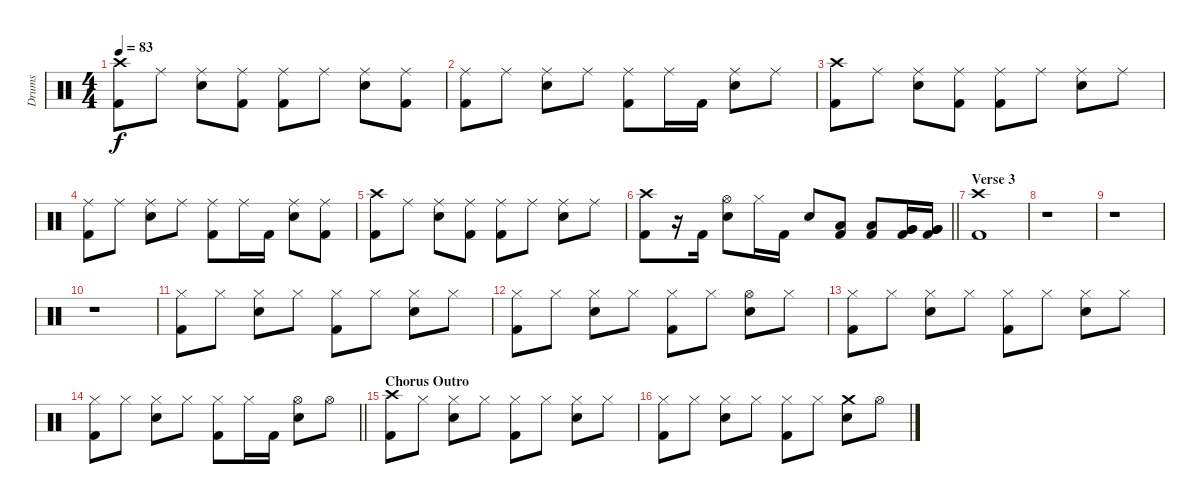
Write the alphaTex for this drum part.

\track ("Drums" "Drums") {instrument percussion}
\staff {score}
\articulation defaults
\ts (4 4)
\tempo 83
\clef neutral
\ks c
("Crash high (hit)" "Kick (hit) 2").8{dy f} "Ride (middle)".8 ("Ride (middle)" "Electric Snare (hit)").8 ("Ride (middle)" "Kick (hit) 2").8 ("Ride (middle)" "Kick (hit) 2").8 "Ride (middle)".8 ("Ride (middle)" "Electric Snare (hit)").8 ("Ride (middle)" "Kick (hit) 2").8 |
("Ride (middle)" "Kick (hit) 2").8 "Ride (middle)".8 ("Ride (middle)" "Electric Snare (hit)").8 "Ride (middle)".8 ("Ride (middle)" "Kick (hit) 2").8 "Ride (middle)".16 "Kick (hit) 2".16 ("Ride (middle)" "Electric Snare (hit)").8 "Ride (middle)".8 |
("Crash high (hit)" "Kick (hit) 2").8 "Ride (middle)".8 ("Ride (middle)" "Electric Snare (hit)").8 ("Ride (middle)" "Kick (hit) 2").8 ("Ride (middle)" "Kick (hit) 2").8 "Ride (middle)".8 ("Ride (middle)" "Electric Snare (hit)").8 "Ride (middle)".8 |
("Ride (middle)" "Kick (hit) 2").8 "Ride (middle)".8 ("Ride (middle)" "Electric Snare (hit)").8 "Ride (middle)".8 ("Ride (middle)" "Kick (hit) 2").8 "Ride (middle)".16 "Kick (hit) 2".16 ("Ride (middle)" "Electric Snare (hit)").8 ("Ride (middle)" "Kick (hit) 2").8 |
("Crash high (hit)" "Kick (hit) 2").8 "Ride (middle)".8 ("Ride (middle)" "Electric Snare (hit)").8 ("Ride (middle)" "Kick (hit) 2").8 ("Ride (middle)" "Kick (hit) 2").8 "Ride (middle)".8 ("Ride (middle)" "Electric Snare (hit)").8 "Ride (middle)".8 |
\barLineRight lightlight
("Crash high (hit)" "Kick (hit) 2").8 r.16 "Kick (hit) 2".16 ("Hi-Hat (open)" "Electric Snare (hit)").8 "Hi-Hat (closed)".16 "Kick (hit) 2".16 "Electric Snare (hit)".8 ("Low Tom (hit)" "Kick (hit) 2").8 ("Low Tom (hit)" "Kick (hit) 2").8 ("Very Low Tom (hit)" "Very Low Tom (hit)" "Kick (hit) 2").16 ("Very Low Tom (hit)" "Very Low Tom (hit)" "Kick (hit) 2").16 |
\section ("" "Verse 3")
("Crash high (hit)" "Kick (hit) 2").1 |
r.1 |
r.1 |
r.1 |
("Hi-Hat (closed)" "Kick (hit) 2").8 "Hi-Hat (closed)".8 ("Hi-Hat (closed)" "Electric Snare (hit)").8 "Hi-Hat (closed)".8 ("Hi-Hat (closed)" "Kick (hit) 2").8 "Hi-Hat (closed)".8 ("Hi-Hat (closed)" "Electric Snare (hit)").8 "Hi-Hat (closed)".8 |
("Hi-Hat (closed)" "Kick (hit) 2").8 "Hi-Hat (closed)".8 ("Hi-Hat (closed)" "Electric Snare (hit)").8 "Hi-Hat (closed)".8 ("Hi-Hat (closed)" "Kick (hit) 2").8 "Hi-Hat (closed)".8 ("Hi-Hat (open)" "Electric Snare (hit)").8 "Hi-Hat (closed)".8 |
("Hi-Hat (closed)" "Kick (hit) 2").8 "Hi-Hat (closed)".8 ("Hi-Hat (closed)" "Electric Snare (hit)").8 "Hi-Hat (closed)".8 ("Hi-Hat (closed)" "Kick (hit) 2").8 "Hi-Hat (closed)".8 ("Hi-Hat (closed)" "Electric Snare (hit)").8 "Hi-Hat (closed)".8 |
\barLineRight lightlight
("Hi-Hat (closed)" "Kick (hit) 2").8 "Hi-Hat (closed)".8 ("Hi-Hat (closed)" "Electric Snare (hit)").8 "Hi-Hat (closed)".8 ("Hi-Hat (closed)" "Kick (hit) 2").8 "Hi-Hat (closed)".16 "Kick (hit) 2".16 ("Hi-Hat (open)" "Electric Snare (hit)").8 "Hi-Hat (open)".8 |
\section ("" "Chorus Outro")
("Crash high (hit)" "Kick (hit) 2").8 "Hi-Hat (closed)".8 ("Hi-Hat (closed)" "Electric Snare (hit)").8 "Hi-Hat (closed)".8 ("Hi-Hat (closed)" "Kick (hit) 2").8 "Hi-Hat (closed)".8 ("Hi-Hat (closed)" "Electric Snare (hit)").8 "Hi-Hat (closed)".8 |
("Hi-Hat (closed)" "Kick (hit) 2").8 "Hi-Hat (closed)".8 ("Hi-Hat (closed)" "Electric Snare (hit)").8 "Hi-Hat (closed)".8 ("Hi-Hat (closed)" "Kick (hit) 2").8 "Hi-Hat (closed)".8 ("Crash medium (hit)" "Electric Snare (hit)").8 "Hi-Hat (open)".8
